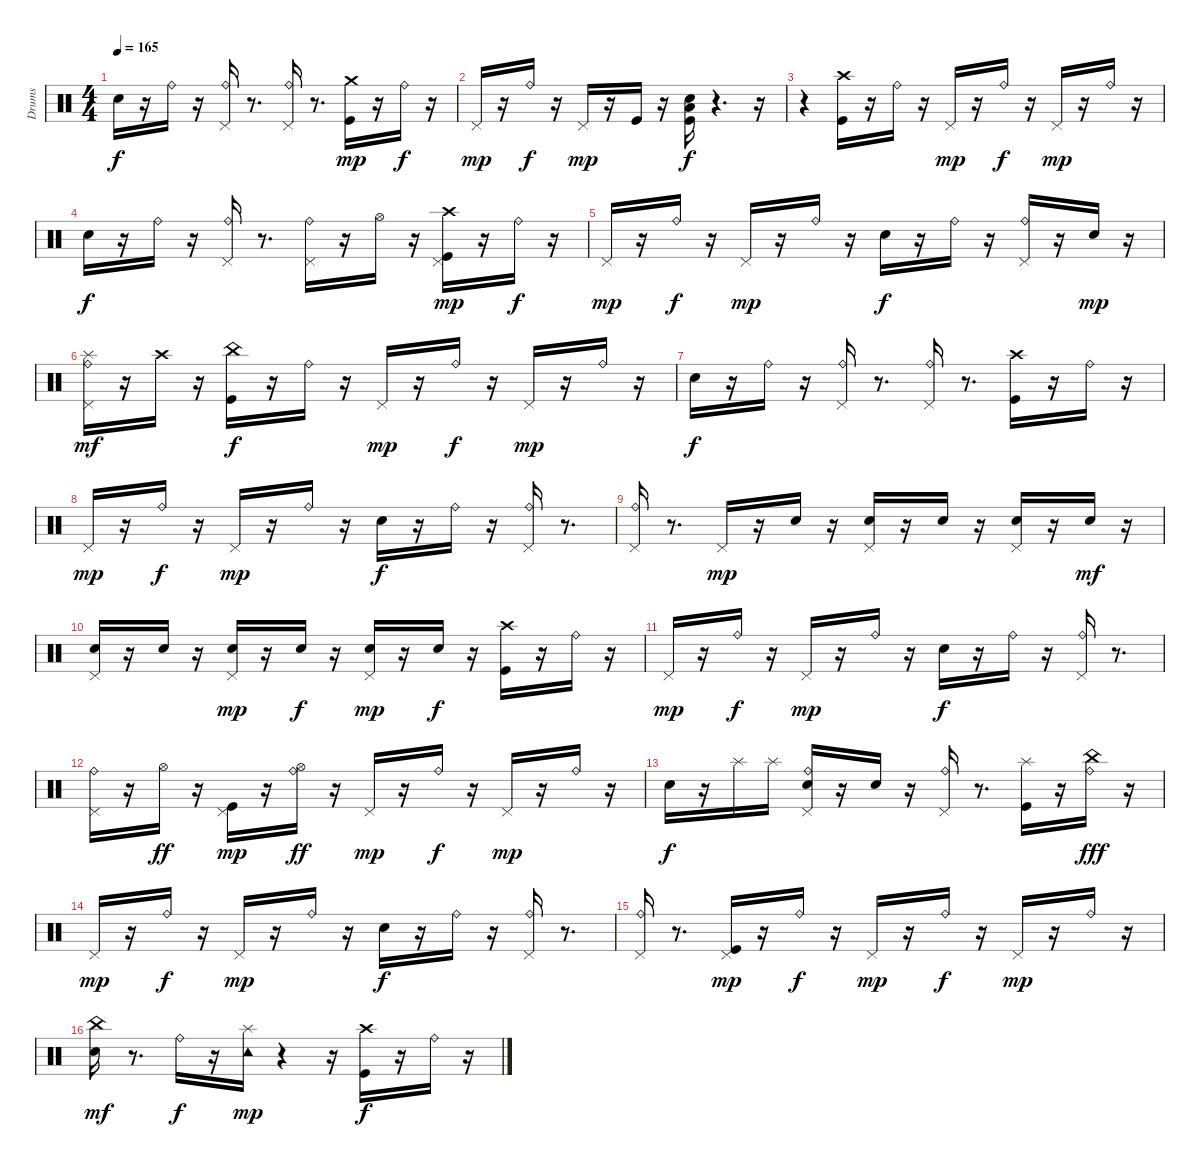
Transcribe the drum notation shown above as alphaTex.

\track ("Drums" "Drums") {instrument percussion}
\staff {score}
\articulation defaults
\ts (4 4)
\tempo 165
\clef neutral
\ks c "Electric Snare (hit)".16{dy f}
r.16 "Ride (bell)".16 r.16 ("Pedal Hi-Hat (hit)" "Ride (bell)").16 r.8{d} ("Pedal Hi-Hat (hit)" "Ride (bell)").16 r.8{d} ("Kick (hit)" "Crash medium (hit)").16{dy mp} r.16 "Ride (bell)".16{dy f} r.16 |
"Pedal Hi-Hat (hit)".16{dy mp} r.16 "Ride (bell)".16{dy f} r.16 "Pedal Hi-Hat (hit)".16{dy mp} r.16 "Kick (hit)".16 r.16 ("Low Floor Tom (hit)" "Electric Snare (hit)" "Kick (hit)").16{dy f} r.4{d} r.16 |
r.4 ("Kick (hit)" "Crash high (hit)").16 r.16 "Ride (bell)".16 r.16 "Pedal Hi-Hat (hit)".16{dy mp} r.16 "Ride (bell)".16{dy f} r.16 "Pedal Hi-Hat (hit)".16{dy mp} r.16 "Ride (bell)".16 r.16 |
"Electric Snare (hit)".16{dy f} r.16 "Ride (bell)".16 r.16 ("Pedal Hi-Hat (hit)" "Ride (bell)").16 r.8{d} ("Pedal Hi-Hat (hit)" "Ride (bell)").16 r.16 "Hi-Hat (open)".16 r.16 ("Pedal Hi-Hat (hit)" "Kick (hit)" "Crash high (hit)").16{dy mp} r.16 "Ride (bell)".16{dy f} r.16 |
"Pedal Hi-Hat (hit)".16{dy mp} r.16 "Ride (bell)".16{dy f} r.16 "Pedal Hi-Hat (hit)".16{dy mp} r.16 "Ride (bell)".16 r.16 "Electric Snare (hit)".16{dy f} r.16 "Ride (bell)".16 r.16 ("Pedal Hi-Hat (hit)" "Ride (bell)").16 r.16 "Electric Snare (hit)".16{dy mp} r.16 |
("Splash (hit)" "Pedal Hi-Hat (hit)" "Ride (bell)").16{dy mf} r.16 "Crash high (hit)".16 r.16 ("China (hit)" "Kick (hit)").16{dy f} r.16 "Ride (bell)".16 r.16 "Pedal Hi-Hat (hit)".16{dy mp} r.16 "Ride (bell)".16{dy f} r.16 "Pedal Hi-Hat (hit)".16{dy mp} r.16 "Ride (bell)".16 r.16 |
"Electric Snare (hit)".16{dy f} r.16 "Ride (bell)".16 r.16 ("Pedal Hi-Hat (hit)" "Ride (bell)").16 r.8{d} ("Pedal Hi-Hat (hit)" "Ride (bell)").16 r.8{d} ("Kick (hit)" "Crash high (hit)").16 r.16 "Ride (bell)".16 r.16 |
"Pedal Hi-Hat (hit)".16{dy mp} r.16 "Ride (bell)".16{dy f} r.16 "Pedal Hi-Hat (hit)".16{dy mp} r.16 "Ride (bell)".16 r.16 "Electric Snare (hit)".16{dy f} r.16 "Ride (bell)".16 r.16 ("Pedal Hi-Hat (hit)" "Ride (bell)").16 r.8{d} |
("Pedal Hi-Hat (hit)" "Ride (bell)").16 r.8{d} "Pedal Hi-Hat (hit)".16{dy mp} r.16 "Electric Snare (hit)".16 r.16 ("Electric Snare (hit)" "Pedal Hi-Hat (hit)").16 r.16 "Electric Snare (hit)".16 r.16 ("Electric Snare (hit)" "Pedal Hi-Hat (hit)").16 r.16 "Electric Snare (hit)".16{dy mf} r.16 |
("Pedal Hi-Hat (hit)" "Electric Snare (hit)").16 r.16 "Electric Snare (hit)".16 r.16 ("Pedal Hi-Hat (hit)" "Electric Snare (hit)").16{dy mp} r.16 "Electric Snare (hit)".16{dy f} r.16 ("Pedal Hi-Hat (hit)" "Electric Snare (hit)").16{dy mp} r.16 "Electric Snare (hit)".16{dy f} r.16 ("Kick (hit)" "Crash high (hit)").16 r.16 "Ride (bell)".16 r.16 |
"Pedal Hi-Hat (hit)".16{dy mp} r.16 "Ride (bell)".16{dy f} r.16 "Pedal Hi-Hat (hit)".16{dy mp} r.16 "Ride (bell)".16 r.16 "Electric Snare (hit)".16{dy f} r.16 "Ride (bell)".16 r.16 ("Pedal Hi-Hat (hit)" "Ride (bell)").16 r.8{d} |
("Pedal Hi-Hat (hit)" "Ride (bell)").16 r.16 "Hi-Hat (open)".16{dy ff} r.16 ("Pedal Hi-Hat (hit)" "Kick (hit)").16{dy mp} r.16 ("Hi-Hat (open)" "Ride (bell)").16{dy ff} r.16 "Pedal Hi-Hat (hit)".16{dy mp} r.16 "Ride (bell)".16{dy f} r.16 "Pedal Hi-Hat (hit)".16{dy mp} r.16 "Ride (bell)".16 r.16 |
"Electric Snare (hit)".16{dy f} r.16 "Splash (hit)".16 "Splash (hit)".16 ("Electric Snare (hit)" "Pedal Hi-Hat (hit)" "Ride (bell)").16 r.16 "Electric Snare (hit)".16 r.16 ("Pedal Hi-Hat (hit)" "Ride (bell)").16 r.8{d} ("Splash (hit)" "Kick (hit)").16 r.16 ("China (hit)" "Ride (bell)").16{dy fff} r.16 |
"Pedal Hi-Hat (hit)".16{dy mp} r.16 "Ride (bell)".16{dy f} r.16 "Pedal Hi-Hat (hit)".16{dy mp} r.16 "Ride (bell)".16 r.16 "Electric Snare (hit)".16{dy f} r.16 "Ride (bell)".16 r.16 ("Pedal Hi-Hat (hit)" "Ride (bell)").16 r.8{d} |
("Pedal Hi-Hat (hit)" "Ride (bell)").16 r.8{d} ("Kick (hit)" "Pedal Hi-Hat (hit)").16{dy mp} r.16 "Ride (bell)".16{dy f} r.16 "Pedal Hi-Hat (hit)".16{dy mp} r.16 "Ride (bell)".16{dy f} r.16 "Pedal Hi-Hat (hit)".16{dy mp} r.16 "Ride (bell)".16 r.16 |
("China (hit)" "Electric Snare (hit)").16{dy mf} r.8{d} "Ride (bell)".16{dy f} r.16 ("Tambourine (hit)" "Splash (hit)").16{dy mp} r.4 r.16 ("Kick (hit)" "Crash high (hit)").16{dy f} r.16 "Ride (bell)".16 r.16
